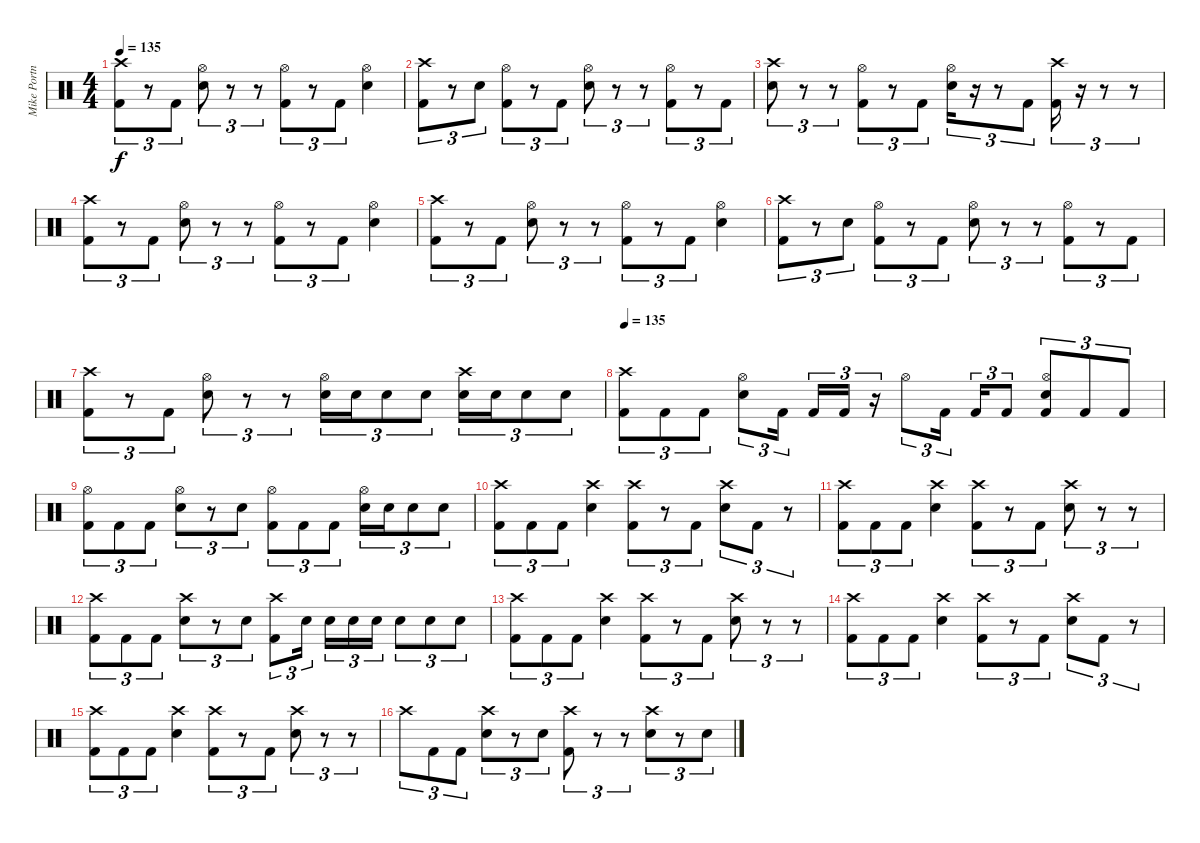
\track ("Mike Portnoy" "Mike Portn") {instrument percussion}
\staff {score}
\articulation defaults
\ts (4 4)
\tempo 135
\clef neutral
\ks c
("Crash high (hit)" "Kick (hit) 2").8{tu (3 2) dy f} r.8{tu (3 2)} "Kick (hit) 2".8{tu (3 2)} ("Hi-Hat (open)" "Snare (hit) 2").8{tu (3 2)} r.8{tu (3 2)} r.8{tu (3 2)} ("Hi-Hat (open)" "Kick (hit) 2").8{tu (3 2)} r.8{tu (3 2)} "Kick (hit) 2".8{tu (3 2)} ("Hi-Hat (open)" "Snare (hit) 2").4 |
("Crash high (hit)" "Kick (hit) 2").8{tu (3 2)} r.8{tu (3 2)} "Snare (hit) 2".8{tu (3 2)} ("Hi-Hat (open)" "Kick (hit) 2").8{tu (3 2)} r.8{tu (3 2)} "Kick (hit) 2".8{tu (3 2)} ("Hi-Hat (open)" "Snare (hit) 2").8{tu (3 2)} r.8{tu (3 2)} r.8{tu (3 2)} ("Hi-Hat (open)" "Kick (hit) 2").8{tu (3 2)} r.8{tu (3 2)} "Kick (hit) 2".8{tu (3 2)} |
("Crash high (hit)" "Snare (hit) 2").8{tu (3 2)} r.8{tu (3 2)} r.8{tu (3 2)} ("Hi-Hat (open)" "Kick (hit) 2").8{tu (3 2)} r.8{tu (3 2)} "Kick (hit) 2".8{tu (3 2)} ("Hi-Hat (open)" "Snare (hit) 2").16{tu (3 2)} r.16{tu (3 2)} r.8{tu (3 2)} "Kick (hit) 2".8{tu (3 2)} ("Crash high (hit)" "Kick (hit) 2").16{tu (3 2)} r.16{tu (3 2)} r.8{tu (3 2)} r.8{tu (3 2)} |
("Crash high (hit)" "Kick (hit) 2").8{tu (3 2)} r.8{tu (3 2)} "Kick (hit) 2".8{tu (3 2)} ("Hi-Hat (open)" "Snare (hit) 2").8{tu (3 2)} r.8{tu (3 2)} r.8{tu (3 2)} ("Hi-Hat (open)" "Kick (hit) 2").8{tu (3 2)} r.8{tu (3 2)} "Kick (hit) 2".8{tu (3 2)} ("Hi-Hat (open)" "Snare (hit) 2").4 |
("Crash high (hit)" "Kick (hit) 2").8{tu (3 2)} r.8{tu (3 2)} "Kick (hit) 2".8{tu (3 2)} ("Hi-Hat (open)" "Snare (hit) 2").8{tu (3 2)} r.8{tu (3 2)} r.8{tu (3 2)} ("Hi-Hat (open)" "Kick (hit) 2").8{tu (3 2)} r.8{tu (3 2)} "Kick (hit) 2".8{tu (3 2)} ("Hi-Hat (open)" "Snare (hit) 2").4 |
("Crash high (hit)" "Kick (hit) 2").8{tu (3 2)} r.8{tu (3 2)} "Snare (hit) 2".8{tu (3 2)} ("Hi-Hat (open)" "Kick (hit) 2").8{tu (3 2)} r.8{tu (3 2)} "Kick (hit) 2".8{tu (3 2)} ("Hi-Hat (open)" "Snare (hit) 2").8{tu (3 2)} r.8{tu (3 2)} r.8{tu (3 2)} ("Hi-Hat (open)" "Kick (hit) 2").8{tu (3 2)} r.8{tu (3 2)} "Kick (hit) 2".8{tu (3 2)} |
("Crash high (hit)" "Kick (hit) 2").8{tu (3 2)} r.8{tu (3 2)} "Kick (hit) 2".8{tu (3 2)} ("Hi-Hat (open)" "Snare (hit) 2").8{tu (3 2)} r.8{tu (3 2)} r.8{tu (3 2)} ("Hi-Hat (open)" "Snare (hit) 2").16{tu (3 2)} "Snare (hit) 2".16{tu (3 2)} "Snare (hit) 2".8{tu (3 2)} "Snare (hit) 2".8{tu (3 2)} ("Crash high (hit)" "Snare (hit) 2").16{tu (3 2)} "Snare (hit) 2".16{tu (3 2)} "Snare (hit) 2".8{tu (3 2)} "Snare (hit) 2".8{tu (3 2)} |
\tempo 135
("Crash high (hit)" "Kick (hit) 2").8{tu (3 2)} "Kick (hit) 2".8{tu (3 2)} "Kick (hit) 2".8{tu (3 2)} ("Hi-Hat (open)" "Snare (hit) 2").8{tu (3 2)} "Kick (hit) 2".16{tu (3 2)} "Kick (hit) 2".16{tu (3 2)} "Kick (hit) 2".16{tu (3 2)} r.16{tu (3 2)} "Hi-Hat (open)".8{tu (3 2)} "Kick (hit) 2".16{tu (3 2)} "Kick (hit) 2".16{tu (3 2)} "Kick (hit) 2".8{tu (3 2)} ("Hi-Hat (open)" "Snare (hit) 2" "Kick (hit) 2").8{tu (3 2)} "Kick (hit) 2".8{tu (3 2)} "Kick (hit) 2".8{tu (3 2)} |
("Hi-Hat (open)" "Kick (hit) 2").8{tu (3 2)} "Kick (hit) 2".8{tu (3 2)} "Kick (hit) 2".8{tu (3 2)} ("Hi-Hat (open)" "Snare (hit) 2").8{tu (3 2)} r.8{tu (3 2)} "Snare (hit) 2".8{tu (3 2)} ("Hi-Hat (open)" "Kick (hit) 2").8{tu (3 2)} "Kick (hit) 2".8{tu (3 2)} "Kick (hit) 2".8{tu (3 2)} ("Hi-Hat (open)" "Snare (hit) 2").16{tu (3 2)} "Snare (hit) 2".16{tu (3 2)} "Snare (hit) 2".8{tu (3 2)} "Snare (hit) 2".8{tu (3 2)} |
("Crash high (hit)" "Kick (hit) 2").8{tu (3 2)} "Kick (hit) 2".8{tu (3 2)} "Kick (hit) 2".8{tu (3 2)} ("Crash high (hit)" "Snare (hit) 2").4 ("Crash high (hit)" "Kick (hit) 2").8{tu (3 2)} r.8{tu (3 2)} "Kick (hit) 2".8{tu (3 2)} ("Crash high (hit)" "Snare (hit) 2").8{tu (3 2)} "Kick (hit) 2".8{tu (3 2)} r.8{tu (3 2)} |
("Crash high (hit)" "Kick (hit) 2").8{tu (3 2)} "Kick (hit) 2".8{tu (3 2)} "Kick (hit) 2".8{tu (3 2)} ("Crash high (hit)" "Snare (hit) 2").4 ("Crash high (hit)" "Kick (hit) 2").8{tu (3 2)} r.8{tu (3 2)} "Kick (hit) 2".8{tu (3 2)} ("Crash high (hit)" "Snare (hit) 2").8{tu (3 2)} r.8{tu (3 2)} r.8{tu (3 2)} |
("Crash high (hit)" "Kick (hit) 2").8{tu (3 2)} "Kick (hit) 2".8{tu (3 2)} "Kick (hit) 2".8{tu (3 2)} ("Crash high (hit)" "Snare (hit) 2").8{tu (3 2)} r.8{tu (3 2)} "Snare (hit) 2".8{tu (3 2)} ("Crash high (hit)" "Kick (hit) 2").8{tu (3 2)} "Snare (hit) 2".16{tu (3 2)} "Snare (hit) 2".16{tu (3 2)} "Snare (hit) 2".16{tu (3 2)} "Snare (hit) 2".16{tu (3 2)} "Snare (hit) 2".8{tu (3 2)} "Snare (hit) 2".8{tu (3 2)} "Snare (hit) 2".8{tu (3 2)} |
("Crash high (hit)" "Kick (hit) 2").8{tu (3 2)} "Kick (hit) 2".8{tu (3 2)} "Kick (hit) 2".8{tu (3 2)} ("Crash high (hit)" "Snare (hit) 2").4 ("Crash high (hit)" "Kick (hit) 2").8{tu (3 2)} r.8{tu (3 2)} "Kick (hit) 2".8{tu (3 2)} ("Crash high (hit)" "Snare (hit) 2").8{tu (3 2)} r.8{tu (3 2)} r.8{tu (3 2)} |
("Crash high (hit)" "Kick (hit) 2").8{tu (3 2)} "Kick (hit) 2".8{tu (3 2)} "Kick (hit) 2".8{tu (3 2)} ("Crash high (hit)" "Snare (hit) 2").4 ("Crash high (hit)" "Kick (hit) 2").8{tu (3 2)} r.8{tu (3 2)} "Kick (hit) 2".8{tu (3 2)} ("Crash high (hit)" "Snare (hit) 2").8{tu (3 2)} "Kick (hit) 2".8{tu (3 2)} r.8{tu (3 2)} |
("Crash high (hit)" "Kick (hit) 2").8{tu (3 2)} "Kick (hit) 2".8{tu (3 2)} "Kick (hit) 2".8{tu (3 2)} ("Crash high (hit)" "Snare (hit) 2").4 ("Crash high (hit)" "Kick (hit) 2").8{tu (3 2)} r.8{tu (3 2)} "Kick (hit) 2".8{tu (3 2)} ("Crash high (hit)" "Snare (hit) 2").8{tu (3 2)} r.8{tu (3 2)} r.8{tu (3 2)} |
"Crash high (hit)".8{tu (3 2)} "Kick (hit) 2".8{tu (3 2)} "Kick (hit) 2".8{tu (3 2)} ("Crash high (hit)" "Snare (hit) 2").8{tu (3 2)} r.8{tu (3 2)} "Snare (hit) 2".8{tu (3 2)} ("Crash high (hit)" "Kick (hit) 2").8{tu (3 2)} r.8{tu (3 2)} r.8{tu (3 2)} ("Crash high (hit)" "Snare (hit) 2").8{tu (3 2)} r.8{tu (3 2)} "Snare (hit) 2".8{tu (3 2)}
